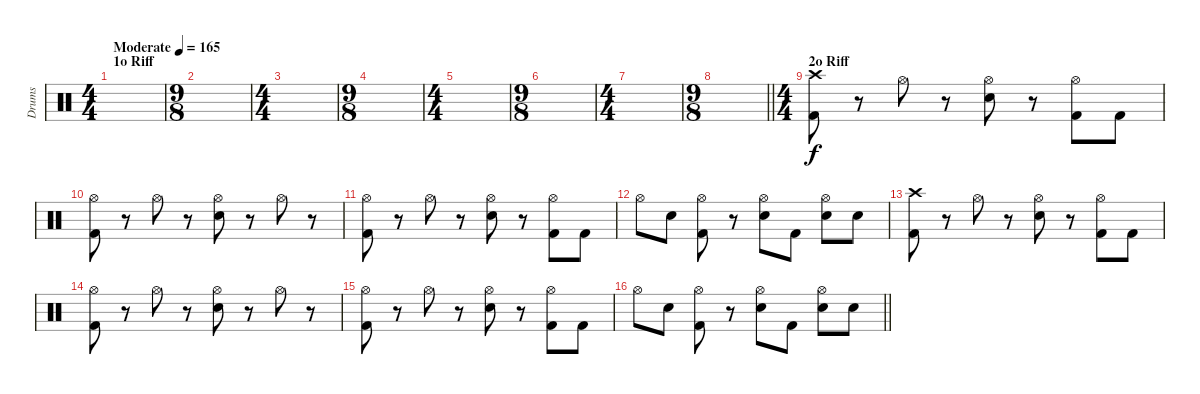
\track ("Drums" "Drums") {instrument percussion}
\staff {score}
\articulation defaults
\ts (4 4)
\section ("" "1o Riff")
\tempo (165 "Moderate")
\clef neutral
\ks c
|
\ts (9 8)
|
\ts (4 4)
|
\ts (9 8)
|
\ts (4 4)
|
\ts (9 8)
|
\ts (4 4)
|
\ts (9 8)
\barLineRight lightlight
|
\ts (4 4)
\section ("" "2o Riff")
("Crash high (hit)" "Kick (hit) 2").8 r.8 "Hi-Hat (open)".8 r.8 ("Hi-Hat (open)" "Electric Snare (hit)").8 r.8 ("Hi-Hat (open)" "Kick (hit) 2").8 "Kick (hit) 2".8 |
("Hi-Hat (open)" "Kick (hit) 2").8 r.8 "Hi-Hat (open)".8 r.8 ("Hi-Hat (open)" "Electric Snare (hit)").8 r.8 "Hi-Hat (open)".8 r.8 |
("Hi-Hat (open)" "Kick (hit) 2").8 r.8 "Hi-Hat (open)".8 r.8 ("Hi-Hat (open)" "Electric Snare (hit)").8 r.8 ("Hi-Hat (open)" "Kick (hit) 2").8 "Kick (hit) 2".8 |
"Hi-Hat (open)".8 "Electric Snare (hit)".8 ("Hi-Hat (open)" "Kick (hit) 2").8 r.8 ("Hi-Hat (open)" "Electric Snare (hit)").8 "Kick (hit) 2".8 ("Hi-Hat (open)" "Electric Snare (hit)").8 "Electric Snare (hit)".8 |
("Crash high (hit)" "Kick (hit) 2").8 r.8 "Hi-Hat (open)".8 r.8 ("Hi-Hat (open)" "Electric Snare (hit)").8 r.8 ("Hi-Hat (open)" "Kick (hit) 2").8 "Kick (hit) 2".8 |
("Hi-Hat (open)" "Kick (hit) 2").8 r.8 "Hi-Hat (open)".8 r.8 ("Hi-Hat (open)" "Electric Snare (hit)").8 r.8 "Hi-Hat (open)".8 r.8 |
("Hi-Hat (open)" "Kick (hit) 2").8 r.8 "Hi-Hat (open)".8 r.8 ("Hi-Hat (open)" "Electric Snare (hit)").8 r.8 ("Hi-Hat (open)" "Kick (hit) 2").8 "Kick (hit) 2".8 |
\barLineRight lightlight "Hi-Hat (open)".8 "Electric Snare (hit)".8
("Hi-Hat (open)" "Kick (hit) 2").8 r.8 ("Hi-Hat (open)" "Electric Snare (hit)").8 "Kick (hit) 2".8 ("Hi-Hat (open)" "Electric Snare (hit)").8 "Electric Snare (hit)".8
